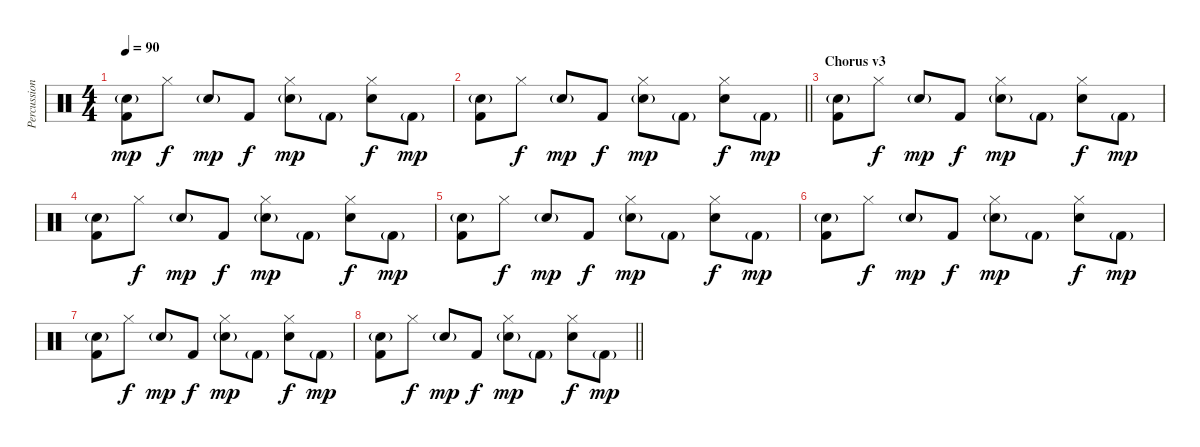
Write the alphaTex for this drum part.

\track ("Percussion" "Percussion") {instrument percussion}
\staff {score}
\articulation defaults
\ts (4 4)
\tempo 90
\clef neutral
\ks c
("Snare (hit) 2"{g} "Kick (hit) 2").8{dy mp} "Hi-Hat (closed)".8{dy f} "Snare (hit) 2"{g}.8{dy mp} "Kick (hit) 2".8{dy f} ("Hi-Hat (closed)" "Snare (hit) 2"{g}).8{dy mp} "Kick (hit) 2"{g}.8 ("Hi-Hat (closed)" "Snare (hit) 2").8{dy f} "Kick (hit) 2"{g}.8{dy mp} |
\barLineRight lightlight
("Snare (hit) 2"{g} "Kick (hit) 2").8 "Hi-Hat (closed)".8{dy f} "Snare (hit) 2"{g}.8{dy mp} "Kick (hit) 2".8{dy f} ("Hi-Hat (closed)" "Snare (hit) 2"{g}).8{dy mp} "Kick (hit) 2"{g}.8 ("Hi-Hat (closed)" "Snare (hit) 2").8{dy f} "Kick (hit) 2"{g}.8{dy mp} |
\section ("" "Chorus v3")
("Snare (hit) 2"{g} "Kick (hit) 2").8 "Hi-Hat (closed)".8{dy f} "Snare (hit) 2"{g}.8{dy mp} "Kick (hit) 2".8{dy f} ("Hi-Hat (closed)" "Snare (hit) 2"{g}).8{dy mp} "Kick (hit) 2"{g}.8 ("Hi-Hat (closed)" "Snare (hit) 2").8{dy f} "Kick (hit) 2"{g}.8{dy mp} |
("Snare (hit) 2"{g} "Kick (hit) 2").8 "Hi-Hat (closed)".8{dy f} "Snare (hit) 2"{g}.8{dy mp} "Kick (hit) 2".8{dy f} ("Hi-Hat (closed)" "Snare (hit) 2"{g}).8{dy mp} "Kick (hit) 2"{g}.8 ("Hi-Hat (closed)" "Snare (hit) 2").8{dy f} "Kick (hit) 2"{g}.8{dy mp} |
("Snare (hit) 2"{g} "Kick (hit) 2").8 "Hi-Hat (closed)".8{dy f} "Snare (hit) 2"{g}.8{dy mp} "Kick (hit) 2".8{dy f} ("Hi-Hat (closed)" "Snare (hit) 2"{g}).8{dy mp} "Kick (hit) 2"{g}.8 ("Hi-Hat (closed)" "Snare (hit) 2").8{dy f} "Kick (hit) 2"{g}.8{dy mp} |
("Snare (hit) 2"{g} "Kick (hit) 2").8 "Hi-Hat (closed)".8{dy f} "Snare (hit) 2"{g}.8{dy mp} "Kick (hit) 2".8{dy f} ("Hi-Hat (closed)" "Snare (hit) 2"{g}).8{dy mp} "Kick (hit) 2"{g}.8 ("Hi-Hat (closed)" "Snare (hit) 2").8{dy f} "Kick (hit) 2"{g}.8{dy mp} |
("Snare (hit) 2"{g} "Kick (hit) 2").8 "Hi-Hat (closed)".8{dy f} "Snare (hit) 2"{g}.8{dy mp} "Kick (hit) 2".8{dy f} ("Hi-Hat (closed)" "Snare (hit) 2"{g}).8{dy mp} "Kick (hit) 2"{g}.8 ("Hi-Hat (closed)" "Snare (hit) 2").8{dy f} "Kick (hit) 2"{g}.8{dy mp} |
\barLineRight lightlight
("Snare (hit) 2"{g} "Kick (hit) 2").8 "Hi-Hat (closed)".8{dy f} "Snare (hit) 2"{g}.8{dy mp} "Kick (hit) 2".8{dy f} ("Hi-Hat (closed)" "Snare (hit) 2"{g}).8{dy mp} "Kick (hit) 2"{g}.8 ("Hi-Hat (closed)" "Snare (hit) 2").8{dy f} "Kick (hit) 2"{g}.8{dy mp}
